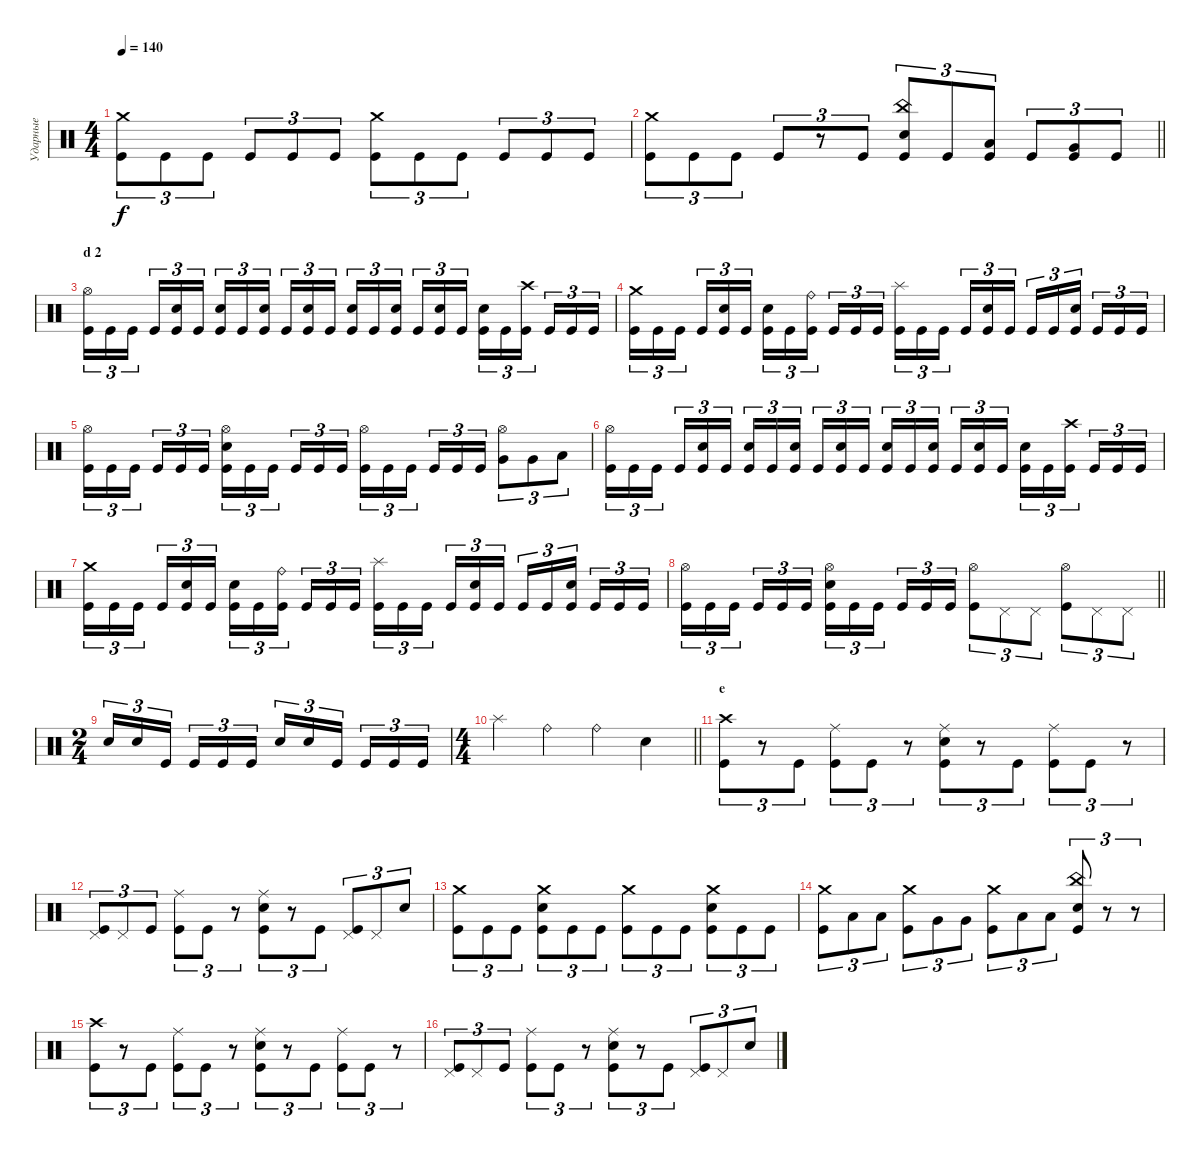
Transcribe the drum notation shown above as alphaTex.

\track ("Ударные" "Ударные") {instrument percussion}
\staff {score}
\articulation defaults
\ts (4 4)
\tempo 140
\clef neutral
\ks c
("Crash medium (hit)" "Kick (hit)").8{tu (3 2) dy f} "Kick (hit)".8{tu (3 2)} "Kick (hit)".8{tu (3 2)} "Kick (hit)".8{tu (3 2)} "Kick (hit)".8{tu (3 2)} "Kick (hit)".8{tu (3 2)} ("Crash medium (hit)" "Kick (hit)").8{tu (3 2)} "Kick (hit)".8{tu (3 2)} "Kick (hit)".8{tu (3 2)} "Kick (hit)".8{tu (3 2)} "Kick (hit)".8{tu (3 2)} "Kick (hit)".8{tu (3 2)} |
\barLineRight lightlight
("Crash medium (hit)" "Kick (hit)").8{tu (3 2)} "Kick (hit)".8{tu (3 2)} "Kick (hit)".8{tu (3 2)} "Kick (hit)".8{tu (3 2)} r.8{tu (3 2)} "Kick (hit)".8{tu (3 2)} ("China (hit)" "Electric Snare (hit)" "Kick (hit)").8{tu (3 2)} "Kick (hit)".8{tu (3 2)} ("Low Tom (hit)" "Kick (hit)").8{tu (3 2)} "Kick (hit)".8{tu (3 2)} ("Very Low Tom (hit)" "Kick (hit)").8{tu (3 2)} "Kick (hit)".8{tu (3 2)} |
\section ("" "d 2")
("Hi-Hat (open)" "Kick (hit)").16{tu (3 2)} "Kick (hit)".16{tu (3 2)} "Kick (hit)".16{tu (3 2) beam splitsecondary} "Kick (hit)".16{tu (3 2)} ("Electric Snare (hit)" "Kick (hit)").16{tu (3 2)} "Kick (hit)".16{tu (3 2)} ("Electric Snare (hit)" "Kick (hit)").16{tu (3 2)} "Kick (hit)".16{tu (3 2)} ("Electric Snare (hit)" "Kick (hit)").16{tu (3 2) beam splitsecondary} "Kick (hit)".16{tu (3 2)} ("Electric Snare (hit)" "Kick (hit)").16{tu (3 2)} "Kick (hit)".16{tu (3 2)} ("Electric Snare (hit)" "Kick (hit)").16{tu (3 2)} "Kick (hit)".16{tu (3 2)} ("Electric Snare (hit)" "Kick (hit)").16{tu (3 2) beam splitsecondary} "Kick (hit)".16{tu (3 2)} ("Electric Snare (hit)" "Kick (hit)").16{tu (3 2)} "Kick (hit)".16{tu (3 2)} ("Electric Snare (hit)" "Kick (hit)").16{tu (3 2)} "Kick (hit)".16{tu (3 2)} ("Crash high (hit)" "Kick (hit)").16{tu (3 2) beam splitsecondary} "Kick (hit)".16{tu (3 2)} "Kick (hit)".16{tu (3 2)} "Kick (hit)".16{tu (3 2)} |
("Crash medium (hit)" "Kick (hit)").16{tu (3 2)} "Kick (hit)".16{tu (3 2)} "Kick (hit)".16{tu (3 2) beam splitsecondary} "Kick (hit)".16{tu (3 2)} ("Electric Snare (hit)" "Kick (hit)").16{tu (3 2)} "Kick (hit)".16{tu (3 2)} ("Electric Snare (hit)" "Kick (hit)").16{tu (3 2)} "Kick (hit)".16{tu (3 2)} ("Ride (bell)" "Kick (hit)").16{tu (3 2) beam splitsecondary} "Kick (hit)".16{tu (3 2)} "Kick (hit)".16{tu (3 2)} "Kick (hit)".16{tu (3 2)} ("Splash (hit)" "Kick (hit)").16{tu (3 2)} "Kick (hit)".16{tu (3 2)} "Kick (hit)".16{tu (3 2) beam splitsecondary} "Kick (hit)".16{tu (3 2)} ("Electric Snare (hit)" "Kick (hit)").16{tu (3 2)} "Kick (hit)".16{tu (3 2)} "Kick (hit)".16{tu (3 2)} "Kick (hit)".16{tu (3 2)} ("Electric Snare (hit)" "Kick (hit)").16{tu (3 2) beam splitsecondary} "Kick (hit)".16{tu (3 2)} "Kick (hit)".16{tu (3 2)} "Kick (hit)".16{tu (3 2)} |
("Hi-Hat (open)" "Kick (hit)").16{tu (3 2)} "Kick (hit)".16{tu (3 2)} "Kick (hit)".16{tu (3 2) beam splitsecondary} "Kick (hit)".16{tu (3 2)} "Kick (hit)".16{tu (3 2)} "Kick (hit)".16{tu (3 2)} ("Hi-Hat (open)" "Electric Snare (hit)" "Kick (hit)").16{tu (3 2)} "Kick (hit)".16{tu (3 2)} "Kick (hit)".16{tu (3 2) beam splitsecondary} "Kick (hit)".16{tu (3 2)} "Kick (hit)".16{tu (3 2)} "Kick (hit)".16{tu (3 2)} ("Hi-Hat (open)" "Kick (hit)").16{tu (3 2)} "Kick (hit)".16{tu (3 2)} "Kick (hit)".16{tu (3 2) beam splitsecondary} "Kick (hit)".16{tu (3 2)} "Kick (hit)".16{tu (3 2)} "Kick (hit)".16{tu (3 2)} ("Hi-Hat (open)" "Very Low Tom (hit)").8{tu (3 2)} "Very Low Tom (hit)".8{tu (3 2)} "Low Floor Tom (hit)".8{tu (3 2)} |
("Hi-Hat (open)" "Kick (hit)").16{tu (3 2)} "Kick (hit)".16{tu (3 2)} "Kick (hit)".16{tu (3 2) beam splitsecondary} "Kick (hit)".16{tu (3 2)} ("Electric Snare (hit)" "Kick (hit)").16{tu (3 2)} "Kick (hit)".16{tu (3 2)} ("Electric Snare (hit)" "Kick (hit)").16{tu (3 2)} "Kick (hit)".16{tu (3 2)} ("Electric Snare (hit)" "Kick (hit)").16{tu (3 2) beam splitsecondary} "Kick (hit)".16{tu (3 2)} ("Electric Snare (hit)" "Kick (hit)").16{tu (3 2)} "Kick (hit)".16{tu (3 2)} ("Electric Snare (hit)" "Kick (hit)").16{tu (3 2)} "Kick (hit)".16{tu (3 2)} ("Electric Snare (hit)" "Kick (hit)").16{tu (3 2) beam splitsecondary} "Kick (hit)".16{tu (3 2)} ("Electric Snare (hit)" "Kick (hit)").16{tu (3 2)} "Kick (hit)".16{tu (3 2)} ("Electric Snare (hit)" "Kick (hit)").16{tu (3 2)} "Kick (hit)".16{tu (3 2)} ("Crash high (hit)" "Kick (hit)").16{tu (3 2) beam splitsecondary} "Kick (hit)".16{tu (3 2)} "Kick (hit)".16{tu (3 2)} "Kick (hit)".16{tu (3 2)} |
("Crash medium (hit)" "Kick (hit)").16{tu (3 2)} "Kick (hit)".16{tu (3 2)} "Kick (hit)".16{tu (3 2) beam splitsecondary} "Kick (hit)".16{tu (3 2)} ("Electric Snare (hit)" "Kick (hit)").16{tu (3 2)} "Kick (hit)".16{tu (3 2)} ("Electric Snare (hit)" "Kick (hit)").16{tu (3 2)} "Kick (hit)".16{tu (3 2)} ("Ride (bell)" "Kick (hit)").16{tu (3 2) beam splitsecondary} "Kick (hit)".16{tu (3 2)} "Kick (hit)".16{tu (3 2)} "Kick (hit)".16{tu (3 2)} ("Splash (hit)" "Kick (hit)").16{tu (3 2)} "Kick (hit)".16{tu (3 2)} "Kick (hit)".16{tu (3 2) beam splitsecondary} "Kick (hit)".16{tu (3 2)} ("Electric Snare (hit)" "Kick (hit)").16{tu (3 2)} "Kick (hit)".16{tu (3 2)} "Kick (hit)".16{tu (3 2)} "Kick (hit)".16{tu (3 2)} ("Electric Snare (hit)" "Kick (hit)").16{tu (3 2) beam splitsecondary} "Kick (hit)".16{tu (3 2)} "Kick (hit)".16{tu (3 2)} "Kick (hit)".16{tu (3 2)} |
\barLineRight lightlight
("Hi-Hat (open)" "Kick (hit)").16{tu (3 2)} "Kick (hit)".16{tu (3 2)} "Kick (hit)".16{tu (3 2) beam splitsecondary} "Kick (hit)".16{tu (3 2)} "Kick (hit)".16{tu (3 2)} "Kick (hit)".16{tu (3 2)} ("Hi-Hat (open)" "Electric Snare (hit)" "Kick (hit)").16{tu (3 2)} "Kick (hit)".16{tu (3 2)} "Kick (hit)".16{tu (3 2) beam splitsecondary} "Kick (hit)".16{tu (3 2)} "Kick (hit)".16{tu (3 2)} "Kick (hit)".16{tu (3 2)} ("Hi-Hat (open)" "Kick (hit)").8{tu (3 2)} "Pedal Hi-Hat (hit)".8{tu (3 2)} "Pedal Hi-Hat (hit)".8{tu (3 2)} ("Hi-Hat (open)" "Kick (hit)").8{tu (3 2)} "Pedal Hi-Hat (hit)".8{tu (3 2)} "Pedal Hi-Hat (hit)".8{tu (3 2)} |
\ts (2 4)
\section ("" " ")
"Electric Snare (hit)".16{tu (3 2)} "Electric Snare (hit)".16{tu (3 2)} "Kick (hit)".16{tu (3 2) beam splitsecondary} "Kick (hit)".16{tu (3 2)} "Kick (hit)".16{tu (3 2)} "Kick (hit)".16{tu (3 2)} "Electric Snare (hit)".16{tu (3 2)} "Electric Snare (hit)".16{tu (3 2)} "Kick (hit)".16{tu (3 2) beam splitsecondary} "Kick (hit)".16{tu (3 2)} "Kick (hit)".16{tu (3 2)} "Kick (hit)".16{tu (3 2)} |
\ts (4 4)
\barLineRight lightlight "Splash (hit)".4 "Ride (bell)".4 "Ride (bell)".4 "Electric Snare (hit)".4
|
\section ("" "e")
("Crash high (hit)" "Kick (hit)").8{tu (3 2)} r.8{tu (3 2)} "Kick (hit)".8{tu (3 2)} ("Ride (middle)" "Kick (hit)").8{tu (3 2)} "Kick (hit)".8{tu (3 2)} r.8{tu (3 2)} ("Ride (middle)" "Electric Snare (hit)" "Kick (hit)").8{tu (3 2)} r.8{tu (3 2)} "Kick (hit)".8{tu (3 2)} ("Ride (middle)" "Kick (hit)").8{tu (3 2)} "Kick (hit)".8{tu (3 2)} r.8{tu (3 2)} |
("Pedal Hi-Hat (hit)" "Kick (hit)").8{tu (3 2)} "Pedal Hi-Hat (hit)".8{tu (3 2)} "Kick (hit)".8{tu (3 2)} ("Ride (middle)" "Kick (hit)").8{tu (3 2)} "Kick (hit)".8{tu (3 2)} r.8{tu (3 2)} ("Ride (middle)" "Electric Snare (hit)" "Kick (hit)").8{tu (3 2)} r.8{tu (3 2)} "Kick (hit)".8{tu (3 2)} ("Pedal Hi-Hat (hit)" "Kick (hit)").8{tu (3 2)} "Pedal Hi-Hat (hit)".8{tu (3 2)} "Electric Snare (hit)".8{tu (3 2)} |
("Crash medium (hit)" "Kick (hit)").8{tu (3 2)} "Kick (hit)".8{tu (3 2)} "Kick (hit)".8{tu (3 2)} ("Crash medium (hit)" "Electric Snare (hit)" "Kick (hit)").8{tu (3 2)} "Kick (hit)".8{tu (3 2)} "Kick (hit)".8{tu (3 2)} ("Crash medium (hit)" "Kick (hit)").8{tu (3 2)} "Kick (hit)".8{tu (3 2)} "Kick (hit)".8{tu (3 2)} ("Crash medium (hit)" "Electric Snare (hit)" "Kick (hit)").8{tu (3 2)} "Kick (hit)".8{tu (3 2)} "Kick (hit)".8{tu (3 2)} |
("Crash medium (hit)" "Kick (hit)").8{tu (3 2)} "Low Tom (hit)".8{tu (3 2)} "Low Tom (hit)".8{tu (3 2)} ("Crash medium (hit)" "Kick (hit)").8{tu (3 2)} "Very Low Tom (hit)".8{tu (3 2)} "Very Low Tom (hit)".8{tu (3 2)} ("Crash medium (hit)" "Kick (hit)").8{tu (3 2)} "Low Tom (hit)".8{tu (3 2)} "Low Tom (hit)".8{tu (3 2)} ("China (hit)" "Electric Snare (hit)" "Kick (hit)").8{tu (3 2)} r.8{tu (3 2)} r.8{tu (3 2)} |
("Crash high (hit)" "Kick (hit)").8{tu (3 2)} r.8{tu (3 2)} "Kick (hit)".8{tu (3 2)} ("Ride (middle)" "Kick (hit)").8{tu (3 2)} "Kick (hit)".8{tu (3 2)} r.8{tu (3 2)} ("Ride (middle)" "Electric Snare (hit)" "Kick (hit)").8{tu (3 2)} r.8{tu (3 2)} "Kick (hit)".8{tu (3 2)} ("Ride (middle)" "Kick (hit)").8{tu (3 2)} "Kick (hit)".8{tu (3 2)} r.8{tu (3 2)} |
("Pedal Hi-Hat (hit)" "Kick (hit)").8{tu (3 2)} "Pedal Hi-Hat (hit)".8{tu (3 2)} "Kick (hit)".8{tu (3 2)} ("Ride (middle)" "Kick (hit)").8{tu (3 2)} "Kick (hit)".8{tu (3 2)} r.8{tu (3 2)} ("Ride (middle)" "Electric Snare (hit)" "Kick (hit)").8{tu (3 2)} r.8{tu (3 2)} "Kick (hit)".8{tu (3 2)} ("Pedal Hi-Hat (hit)" "Kick (hit)").8{tu (3 2)} "Pedal Hi-Hat (hit)".8{tu (3 2)} "Electric Snare (hit)".8{tu (3 2)}
